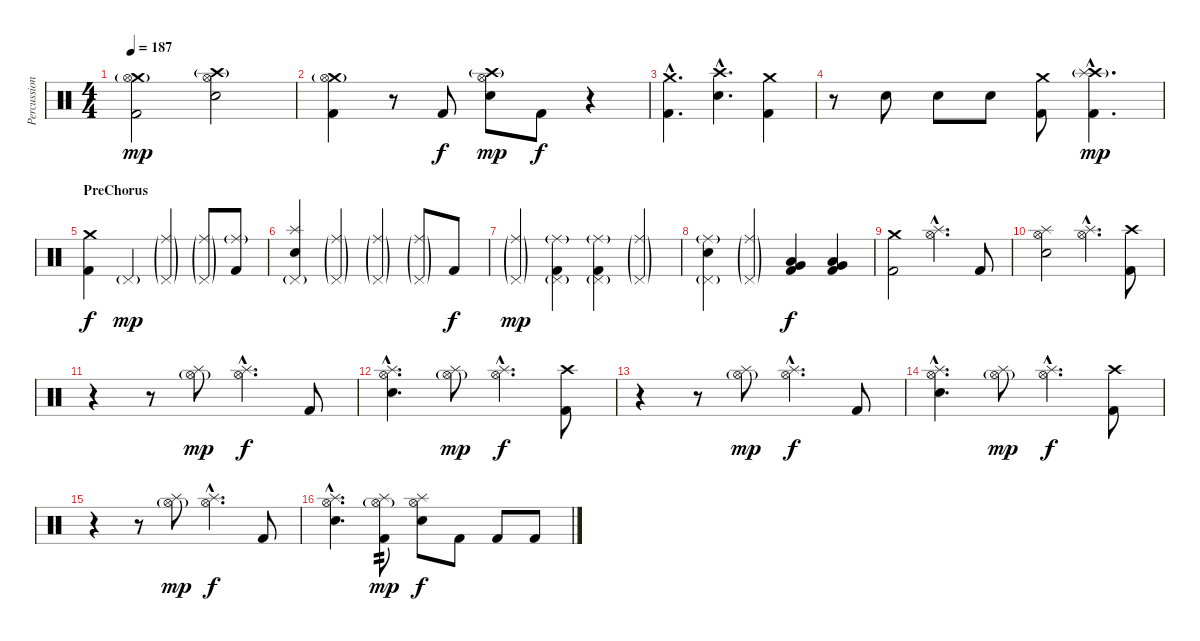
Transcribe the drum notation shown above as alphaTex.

\track ("Percussion" "Percussion") {instrument percussion}
\staff {score}
\articulation defaults
\ts (4 4)
\tempo 187
\clef neutral
\ks c
("Crash medium (hit)"{g} "Hi-Hat (open)" "Kick (hit) 2").2{dy mp} ("Crash high (hit)"{g} "Hi-Hat (open)" "Electric Snare (hit)").2 |
("Crash medium (hit)"{g} "Hi-Hat (open)" "Kick (hit) 2").4 r.8 "Kick (hit) 2".8{dy f} ("Crash high (hit)"{g} "Hi-Hat (open)" "Electric Snare (hit)").8{dy mp} "Kick (hit) 2".8{dy f} r.4 |
("Crash medium (hit)"{hac} "Kick (hit) 2"{hac}).4{d} ("Crash high (hit)"{hac} "Electric Snare (hit)"{hac}).4{d} ("Crash medium (hit)" "Kick (hit) 2").4 |
r.8 "Electric Snare (hit)".8 "Electric Snare (hit)".8 "Electric Snare (hit)".8 ("Crash medium (hit)" "Kick (hit) 2").8 ("Crash high (hit)"{g hac} "Splash (hit)"{hac} "Kick (hit) 2"{hac}).4{d dy mp} |
\section ("" "PreChorus")
("Crash medium (hit)" "Kick (hit) 2").4{dy f} "Pedal Hi-Hat (hit)"{g}.4{dy mp} ("Ride (middle)"{g} "Pedal Hi-Hat (hit)"{g}).4 ("Ride (middle)"{g} "Pedal Hi-Hat (hit)"{g}).8 ("Ride (middle)"{g} "Kick (hit) 2").8 |
("Splash (hit)" "Pedal Hi-Hat (hit)"{g} "Electric Snare (hit)").4 ("Ride (middle)"{g} "Pedal Hi-Hat (hit)"{g}).4 ("Ride (middle)"{g} "Pedal Hi-Hat (hit)"{g}).4 ("Ride (middle)"{g} "Pedal Hi-Hat (hit)"{g}).8 "Kick (hit) 2".8{dy f} |
("Ride (middle)"{g} "Pedal Hi-Hat (hit)"{g}).4{dy mp} ("Ride (middle)"{g} "Pedal Hi-Hat (hit)"{g} "Kick (hit) 2").4 ("Ride (middle)"{g} "Pedal Hi-Hat (hit)"{g} "Kick (hit) 2").4 ("Ride (middle)"{g} "Pedal Hi-Hat (hit)"{g}).4 |
("Ride (middle)"{g} "Pedal Hi-Hat (hit)"{g} "Electric Snare (hit)").4 ("Ride (middle)"{g} "Pedal Hi-Hat (hit)"{g}).4 ("Very Low Tom (hit)" "Low Tom (hit)" "Kick (hit) 2").4{dy f} ("Very Low Tom (hit)" "Low Tom (hit)" "Kick (hit) 2").4 |
("Crash medium (hit)" "Kick (hit) 2").2 ("Hi-Hat (open)"{hac} "Splash (hit)"{hac}).4{d} "Kick (hit) 2".8 |
("Hi-Hat (open)" "Splash (hit)" "Electric Snare (hit)").2 ("Hi-Hat (open)"{hac} "Splash (hit)"{hac}).4{d} ("Crash high (hit)" "Kick (hit) 2").8 |
r.4 r.8 ("Hi-Hat (open)"{g} "Splash (hit)").8{dy mp} ("Hi-Hat (open)"{hac} "Splash (hit)"{hac}).4{d dy f} "Kick (hit) 2".8 |
("Hi-Hat (open)"{hac} "Splash (hit)"{hac} "Electric Snare (hit)"{hac}).4{d} ("Hi-Hat (open)"{g} "Splash (hit)").8{dy mp} ("Hi-Hat (open)"{hac} "Splash (hit)"{hac}).4{d dy f} ("Crash high (hit)" "Kick (hit) 2").8 |
r.4 r.8 ("Hi-Hat (open)"{g} "Splash (hit)").8{dy mp} ("Hi-Hat (open)"{hac} "Splash (hit)"{hac}).4{d dy f} "Kick (hit) 2".8 |
("Hi-Hat (open)"{hac} "Splash (hit)"{hac} "Electric Snare (hit)"{hac}).4{d} ("Hi-Hat (open)"{g} "Splash (hit)").8{dy mp} ("Hi-Hat (open)"{hac} "Splash (hit)"{hac}).4{d dy f} ("Crash high (hit)" "Kick (hit) 2").8 |
r.4 r.8 ("Hi-Hat (open)"{g} "Splash (hit)").8{dy mp} ("Hi-Hat (open)"{hac} "Splash (hit)"{hac}).4{d dy f} "Kick (hit) 2".8 |
("Hi-Hat (open)"{hac} "Splash (hit)"{hac} "Electric Snare (hit)"{hac}).4{d} ("Hi-Hat (open)"{g} "Splash (hit)" "Kick (hit) 2").8{tp 2 dy mp} ("Hi-Hat (open)" "Splash (hit)" "Electric Snare (hit)").8{dy f} "Kick (hit) 2".8 "Kick (hit) 2".8 "Kick (hit) 2".8
